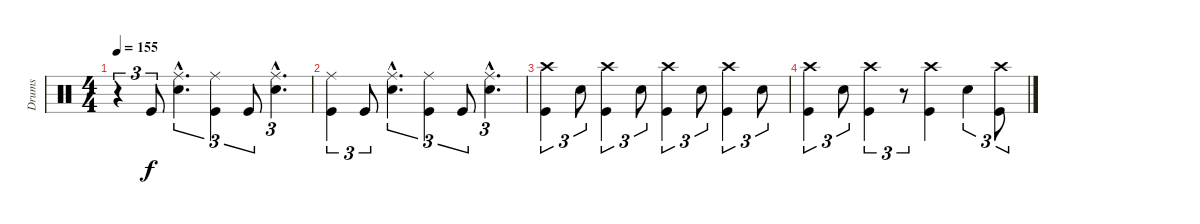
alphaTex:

\track ("Drums" "Drums") {instrument percussion}
\staff {score}
\articulation defaults
\ts (4 4)
\tempo 155
\clef neutral
\ks c
r.4{tu (3 2) dy f} "Kick (hit)".8{tu (3 2)} ("Ride (middle)"{hac} "Snare (hit) 2"{hac}).4{d tu (3 2)} ("Ride (middle)" "Kick (hit)").4{tu (3 2)} "Kick (hit)".8{tu (3 2)} ("Ride (middle)"{hac} "Snare (hit) 2"{hac}).4{d tu (3 2)} |
("Ride (middle)" "Kick (hit)").4{tu (3 2)} "Kick (hit)".8{tu (3 2)} ("Ride (middle)"{hac} "Snare (hit) 2"{hac}).4{d tu (3 2)} ("Ride (middle)" "Kick (hit)").4{tu (3 2)} "Kick (hit)".8{tu (3 2)} ("Ride (middle)"{hac} "Snare (hit) 2"{hac}).4{d tu (3 2)} |
("Crash high (hit)" "Kick (hit)").4{tu (3 2)} "Snare (hit) 2".8{tu (3 2)} ("Crash high (hit)" "Kick (hit)").4{tu (3 2)} "Snare (hit) 2".8{tu (3 2)} ("Crash high (hit)" "Kick (hit)").4{tu (3 2)} "Snare (hit) 2".8{tu (3 2)} ("Crash high (hit)" "Kick (hit)").4{tu (3 2)} "Snare (hit) 2".8{tu (3 2)} |
("Crash high (hit)" "Kick (hit)").4{tu (3 2)} "Snare (hit) 2".8{tu (3 2)} ("Crash high (hit)" "Kick (hit)").4{tu (3 2)} r.8{tu (3 2)} ("Crash high (hit)" "Kick (hit)").4 "Snare (hit) 2".4{tu (3 2)} ("Crash high (hit)" "Kick (hit)").8{tu (3 2)}
